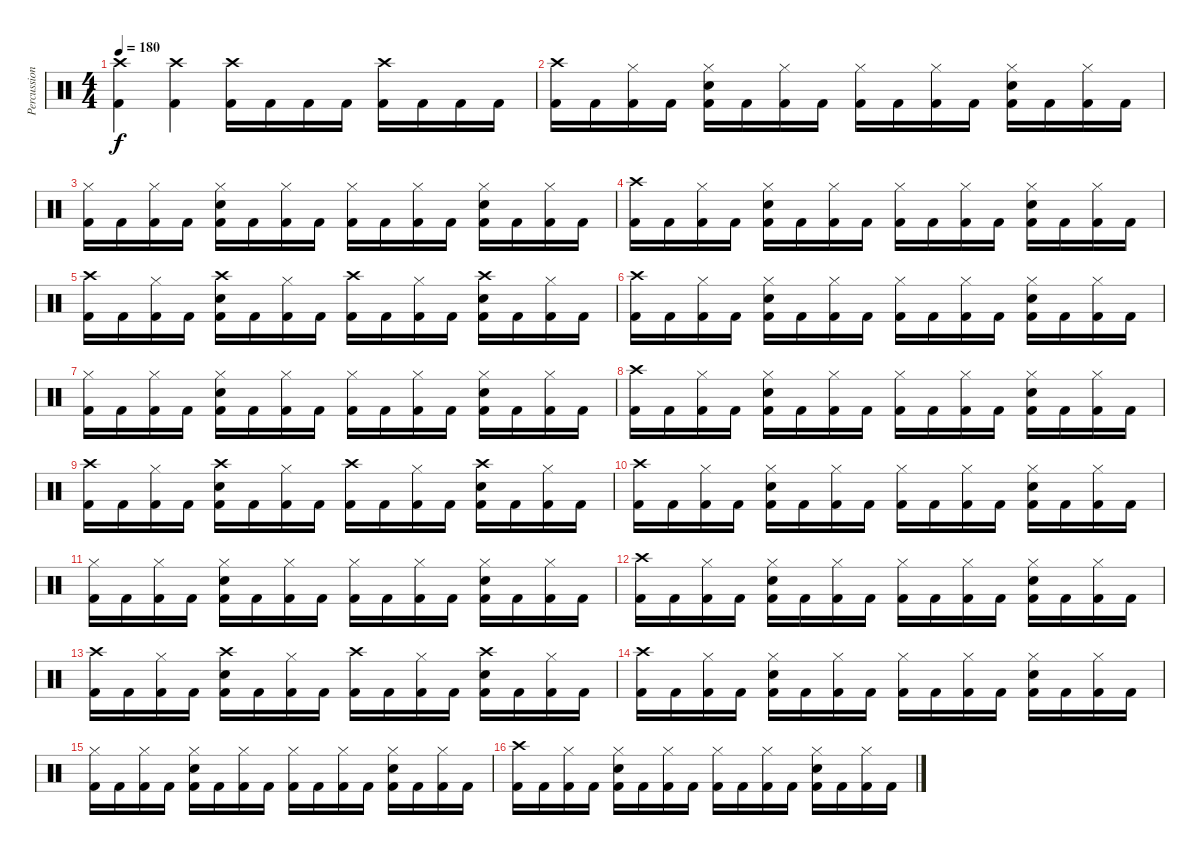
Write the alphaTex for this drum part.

\track ("Percussion" "Percussion") {instrument percussion}
\staff {score}
\articulation defaults
\ts (4 4)
\tempo 180
\clef neutral
\ks c
("Crash high (hit)" "Kick (hit) 2").4{dy f} ("Crash high (hit)" "Kick (hit) 2").4 ("Crash high (hit)" "Kick (hit) 2").16 "Kick (hit) 2".16 "Kick (hit) 2".16 "Kick (hit) 2".16 ("Crash high (hit)" "Kick (hit) 2").16 "Kick (hit) 2".16 "Kick (hit) 2".16 "Kick (hit) 2".16 |
("Crash high (hit)" "Kick (hit) 2").16 "Kick (hit) 2".16 ("Hi-Hat (closed)" "Kick (hit) 2").16 "Kick (hit) 2".16 ("Hi-Hat (closed)" "Snare (hit) 2" "Kick (hit) 2").16 "Kick (hit) 2".16 ("Hi-Hat (closed)" "Kick (hit) 2").16 "Kick (hit) 2".16 ("Hi-Hat (closed)" "Kick (hit) 2").16 "Kick (hit) 2".16 ("Hi-Hat (closed)" "Kick (hit) 2").16 "Kick (hit) 2".16 ("Hi-Hat (closed)" "Snare (hit) 2" "Kick (hit) 2").16 "Kick (hit) 2".16 ("Hi-Hat (closed)" "Kick (hit) 2").16 "Kick (hit) 2".16 |
("Hi-Hat (closed)" "Kick (hit) 2").16 "Kick (hit) 2".16 ("Hi-Hat (closed)" "Kick (hit) 2").16 "Kick (hit) 2".16 ("Hi-Hat (closed)" "Snare (hit) 2" "Kick (hit) 2").16 "Kick (hit) 2".16 ("Hi-Hat (closed)" "Kick (hit) 2").16 "Kick (hit) 2".16 ("Hi-Hat (closed)" "Kick (hit) 2").16 "Kick (hit) 2".16 ("Hi-Hat (closed)" "Kick (hit) 2").16 "Kick (hit) 2".16 ("Hi-Hat (closed)" "Snare (hit) 2" "Kick (hit) 2").16 "Kick (hit) 2".16 ("Hi-Hat (closed)" "Kick (hit) 2").16 "Kick (hit) 2".16 |
("Crash high (hit)" "Kick (hit) 2").16 "Kick (hit) 2".16 ("Hi-Hat (closed)" "Kick (hit) 2").16 "Kick (hit) 2".16 ("Hi-Hat (closed)" "Snare (hit) 2" "Kick (hit) 2").16 "Kick (hit) 2".16 ("Hi-Hat (closed)" "Kick (hit) 2").16 "Kick (hit) 2".16 ("Hi-Hat (closed)" "Kick (hit) 2").16 "Kick (hit) 2".16 ("Hi-Hat (closed)" "Kick (hit) 2").16 "Kick (hit) 2".16 ("Hi-Hat (closed)" "Snare (hit) 2" "Kick (hit) 2").16 "Kick (hit) 2".16 ("Hi-Hat (closed)" "Kick (hit) 2").16 "Kick (hit) 2".16 |
("Crash high (hit)" "Kick (hit) 2").16 "Kick (hit) 2".16 ("Hi-Hat (closed)" "Kick (hit) 2").16 "Kick (hit) 2".16 ("Crash high (hit)" "Snare (hit) 2" "Kick (hit) 2").16 "Kick (hit) 2".16 ("Hi-Hat (closed)" "Kick (hit) 2").16 "Kick (hit) 2".16 ("Crash high (hit)" "Kick (hit) 2").16 "Kick (hit) 2".16 ("Hi-Hat (closed)" "Kick (hit) 2").16 "Kick (hit) 2".16 ("Crash high (hit)" "Snare (hit) 2" "Kick (hit) 2").16 "Kick (hit) 2".16 ("Hi-Hat (closed)" "Kick (hit) 2").16 "Kick (hit) 2".16 |
("Crash high (hit)" "Kick (hit) 2").16 "Kick (hit) 2".16 ("Hi-Hat (closed)" "Kick (hit) 2").16 "Kick (hit) 2".16 ("Hi-Hat (closed)" "Snare (hit) 2" "Kick (hit) 2").16 "Kick (hit) 2".16 ("Hi-Hat (closed)" "Kick (hit) 2").16 "Kick (hit) 2".16 ("Hi-Hat (closed)" "Kick (hit) 2").16 "Kick (hit) 2".16 ("Hi-Hat (closed)" "Kick (hit) 2").16 "Kick (hit) 2".16 ("Hi-Hat (closed)" "Snare (hit) 2" "Kick (hit) 2").16 "Kick (hit) 2".16 ("Hi-Hat (closed)" "Kick (hit) 2").16 "Kick (hit) 2".16 |
("Hi-Hat (closed)" "Kick (hit) 2").16 "Kick (hit) 2".16 ("Hi-Hat (closed)" "Kick (hit) 2").16 "Kick (hit) 2".16 ("Hi-Hat (closed)" "Snare (hit) 2" "Kick (hit) 2").16 "Kick (hit) 2".16 ("Hi-Hat (closed)" "Kick (hit) 2").16 "Kick (hit) 2".16 ("Hi-Hat (closed)" "Kick (hit) 2").16 "Kick (hit) 2".16 ("Hi-Hat (closed)" "Kick (hit) 2").16 "Kick (hit) 2".16 ("Hi-Hat (closed)" "Snare (hit) 2" "Kick (hit) 2").16 "Kick (hit) 2".16 ("Hi-Hat (closed)" "Kick (hit) 2").16 "Kick (hit) 2".16 |
("Crash high (hit)" "Kick (hit) 2").16 "Kick (hit) 2".16 ("Hi-Hat (closed)" "Kick (hit) 2").16 "Kick (hit) 2".16 ("Hi-Hat (closed)" "Snare (hit) 2" "Kick (hit) 2").16 "Kick (hit) 2".16 ("Hi-Hat (closed)" "Kick (hit) 2").16 "Kick (hit) 2".16 ("Hi-Hat (closed)" "Kick (hit) 2").16 "Kick (hit) 2".16 ("Hi-Hat (closed)" "Kick (hit) 2").16 "Kick (hit) 2".16 ("Hi-Hat (closed)" "Snare (hit) 2" "Kick (hit) 2").16 "Kick (hit) 2".16 ("Hi-Hat (closed)" "Kick (hit) 2").16 "Kick (hit) 2".16 |
("Crash high (hit)" "Kick (hit) 2").16 "Kick (hit) 2".16 ("Hi-Hat (closed)" "Kick (hit) 2").16 "Kick (hit) 2".16 ("Crash high (hit)" "Snare (hit) 2" "Kick (hit) 2").16 "Kick (hit) 2".16 ("Hi-Hat (closed)" "Kick (hit) 2").16 "Kick (hit) 2".16 ("Crash high (hit)" "Kick (hit) 2").16 "Kick (hit) 2".16 ("Hi-Hat (closed)" "Kick (hit) 2").16 "Kick (hit) 2".16 ("Crash high (hit)" "Snare (hit) 2" "Kick (hit) 2").16 "Kick (hit) 2".16 ("Hi-Hat (closed)" "Kick (hit) 2").16 "Kick (hit) 2".16 |
("Crash high (hit)" "Kick (hit) 2").16 "Kick (hit) 2".16 ("Hi-Hat (closed)" "Kick (hit) 2").16 "Kick (hit) 2".16 ("Hi-Hat (closed)" "Snare (hit) 2" "Kick (hit) 2").16 "Kick (hit) 2".16 ("Hi-Hat (closed)" "Kick (hit) 2").16 "Kick (hit) 2".16 ("Hi-Hat (closed)" "Kick (hit) 2").16 "Kick (hit) 2".16 ("Hi-Hat (closed)" "Kick (hit) 2").16 "Kick (hit) 2".16 ("Hi-Hat (closed)" "Snare (hit) 2" "Kick (hit) 2").16 "Kick (hit) 2".16 ("Hi-Hat (closed)" "Kick (hit) 2").16 "Kick (hit) 2".16 |
("Hi-Hat (closed)" "Kick (hit) 2").16 "Kick (hit) 2".16 ("Hi-Hat (closed)" "Kick (hit) 2").16 "Kick (hit) 2".16 ("Hi-Hat (closed)" "Snare (hit) 2" "Kick (hit) 2").16 "Kick (hit) 2".16 ("Hi-Hat (closed)" "Kick (hit) 2").16 "Kick (hit) 2".16 ("Hi-Hat (closed)" "Kick (hit) 2").16 "Kick (hit) 2".16 ("Hi-Hat (closed)" "Kick (hit) 2").16 "Kick (hit) 2".16 ("Hi-Hat (closed)" "Snare (hit) 2" "Kick (hit) 2").16 "Kick (hit) 2".16 ("Hi-Hat (closed)" "Kick (hit) 2").16 "Kick (hit) 2".16 |
("Crash high (hit)" "Kick (hit) 2").16 "Kick (hit) 2".16 ("Hi-Hat (closed)" "Kick (hit) 2").16 "Kick (hit) 2".16 ("Hi-Hat (closed)" "Snare (hit) 2" "Kick (hit) 2").16 "Kick (hit) 2".16 ("Hi-Hat (closed)" "Kick (hit) 2").16 "Kick (hit) 2".16 ("Hi-Hat (closed)" "Kick (hit) 2").16 "Kick (hit) 2".16 ("Hi-Hat (closed)" "Kick (hit) 2").16 "Kick (hit) 2".16 ("Hi-Hat (closed)" "Snare (hit) 2" "Kick (hit) 2").16 "Kick (hit) 2".16 ("Hi-Hat (closed)" "Kick (hit) 2").16 "Kick (hit) 2".16 |
("Crash high (hit)" "Kick (hit) 2").16 "Kick (hit) 2".16 ("Hi-Hat (closed)" "Kick (hit) 2").16 "Kick (hit) 2".16 ("Crash high (hit)" "Snare (hit) 2" "Kick (hit) 2").16 "Kick (hit) 2".16 ("Hi-Hat (closed)" "Kick (hit) 2").16 "Kick (hit) 2".16 ("Crash high (hit)" "Kick (hit) 2").16 "Kick (hit) 2".16 ("Hi-Hat (closed)" "Kick (hit) 2").16 "Kick (hit) 2".16 ("Crash high (hit)" "Snare (hit) 2" "Kick (hit) 2").16 "Kick (hit) 2".16 ("Hi-Hat (closed)" "Kick (hit) 2").16 "Kick (hit) 2".16 |
("Crash high (hit)" "Kick (hit) 2").16 "Kick (hit) 2".16 ("Hi-Hat (closed)" "Kick (hit) 2").16 "Kick (hit) 2".16 ("Hi-Hat (closed)" "Snare (hit) 2" "Kick (hit) 2").16 "Kick (hit) 2".16 ("Hi-Hat (closed)" "Kick (hit) 2").16 "Kick (hit) 2".16 ("Hi-Hat (closed)" "Kick (hit) 2").16 "Kick (hit) 2".16 ("Hi-Hat (closed)" "Kick (hit) 2").16 "Kick (hit) 2".16 ("Hi-Hat (closed)" "Snare (hit) 2" "Kick (hit) 2").16 "Kick (hit) 2".16 ("Hi-Hat (closed)" "Kick (hit) 2").16 "Kick (hit) 2".16 |
("Hi-Hat (closed)" "Kick (hit) 2").16 "Kick (hit) 2".16 ("Hi-Hat (closed)" "Kick (hit) 2").16 "Kick (hit) 2".16 ("Hi-Hat (closed)" "Snare (hit) 2" "Kick (hit) 2").16 "Kick (hit) 2".16 ("Hi-Hat (closed)" "Kick (hit) 2").16 "Kick (hit) 2".16 ("Hi-Hat (closed)" "Kick (hit) 2").16 "Kick (hit) 2".16 ("Hi-Hat (closed)" "Kick (hit) 2").16 "Kick (hit) 2".16 ("Hi-Hat (closed)" "Snare (hit) 2" "Kick (hit) 2").16 "Kick (hit) 2".16 ("Hi-Hat (closed)" "Kick (hit) 2").16 "Kick (hit) 2".16 |
("Crash high (hit)" "Kick (hit) 2").16 "Kick (hit) 2".16 ("Hi-Hat (closed)" "Kick (hit) 2").16 "Kick (hit) 2".16 ("Hi-Hat (closed)" "Snare (hit) 2" "Kick (hit) 2").16 "Kick (hit) 2".16 ("Hi-Hat (closed)" "Kick (hit) 2").16 "Kick (hit) 2".16 ("Hi-Hat (closed)" "Kick (hit) 2").16 "Kick (hit) 2".16 ("Hi-Hat (closed)" "Kick (hit) 2").16 "Kick (hit) 2".16 ("Hi-Hat (closed)" "Snare (hit) 2" "Kick (hit) 2").16 "Kick (hit) 2".16 ("Hi-Hat (closed)" "Kick (hit) 2").16 "Kick (hit) 2".16
